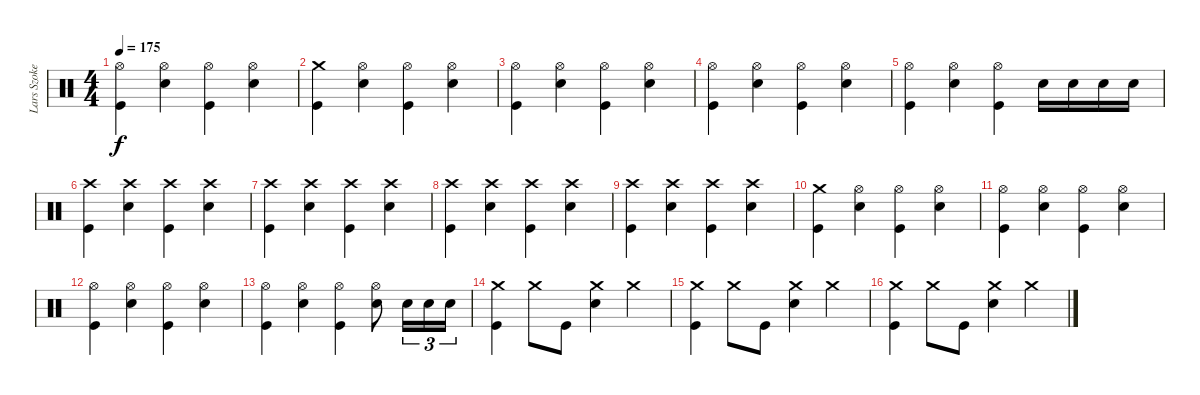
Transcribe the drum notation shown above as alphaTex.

\track ("Lars Szoke" "Lars Szoke") {instrument percussion}
\staff {score}
\articulation defaults
\ts (4 4)
\tempo 175
\clef neutral
\ks c
("Hi-Hat (open)" "Kick (hit)").4{dy f} ("Hi-Hat (open)" "Electric Snare (hit)").4 ("Hi-Hat (open)" "Kick (hit)").4 ("Hi-Hat (open)" "Electric Snare (hit)").4 |
("Crash medium (hit)" "Kick (hit)").4 ("Hi-Hat (open)" "Electric Snare (hit)").4 ("Hi-Hat (open)" "Kick (hit)").4 ("Hi-Hat (open)" "Electric Snare (hit)").4 |
("Hi-Hat (open)" "Kick (hit)").4 ("Hi-Hat (open)" "Electric Snare (hit)").4 ("Hi-Hat (open)" "Kick (hit)").4 ("Hi-Hat (open)" "Electric Snare (hit)").4 |
("Hi-Hat (open)" "Kick (hit)").4 ("Hi-Hat (open)" "Electric Snare (hit)").4 ("Hi-Hat (open)" "Kick (hit)").4 ("Hi-Hat (open)" "Electric Snare (hit)").4 |
("Hi-Hat (open)" "Kick (hit)").4 ("Hi-Hat (open)" "Electric Snare (hit)").4 ("Hi-Hat (open)" "Kick (hit)").4 "Electric Snare (hit)".16 "Electric Snare (hit)".16 "Electric Snare (hit)".16 "Electric Snare (hit)".16 |
("Crash high (hit)" "Kick (hit)").4 ("Crash high (hit)" "Electric Snare (hit)").4 ("Crash high (hit)" "Kick (hit)").4 ("Crash high (hit)" "Electric Snare (hit)").4 |
("Crash high (hit)" "Kick (hit)").4 ("Crash high (hit)" "Electric Snare (hit)").4 ("Crash high (hit)" "Kick (hit)").4 ("Crash high (hit)" "Electric Snare (hit)").4 |
("Crash high (hit)" "Kick (hit)").4 ("Crash high (hit)" "Electric Snare (hit)").4 ("Crash high (hit)" "Kick (hit)").4 ("Crash high (hit)" "Electric Snare (hit)").4 |
("Crash high (hit)" "Kick (hit)").4 ("Crash high (hit)" "Electric Snare (hit)").4 ("Crash high (hit)" "Kick (hit)").4 ("Crash high (hit)" "Electric Snare (hit)").4 |
("Crash medium (hit)" "Kick (hit)").4 ("Hi-Hat (open)" "Electric Snare (hit)").4 ("Hi-Hat (open)" "Kick (hit)").4 ("Hi-Hat (open)" "Electric Snare (hit)").4 |
("Hi-Hat (open)" "Kick (hit)").4 ("Hi-Hat (open)" "Electric Snare (hit)").4 ("Hi-Hat (open)" "Kick (hit)").4 ("Hi-Hat (open)" "Electric Snare (hit)").4 |
("Hi-Hat (open)" "Kick (hit)").4 ("Hi-Hat (open)" "Electric Snare (hit)").4 ("Hi-Hat (open)" "Kick (hit)").4 ("Hi-Hat (open)" "Electric Snare (hit)").4 |
("Hi-Hat (open)" "Kick (hit)").4 ("Hi-Hat (open)" "Electric Snare (hit)").4 ("Hi-Hat (open)" "Kick (hit)").4 ("Hi-Hat (open)" "Electric Snare (hit)").8 "Electric Snare (hit)".16{tu (3 2)} "Electric Snare (hit)".16{tu (3 2)} "Electric Snare (hit)".16{tu (3 2)} |
("Crash medium (hit)" "Kick (hit)").4 "Crash medium (hit)".8 "Kick (hit)".8 ("Crash medium (hit)" "Electric Snare (hit)").4 "Crash medium (hit)".4 |
("Crash medium (hit)" "Kick (hit)").4 "Crash medium (hit)".8 "Kick (hit)".8 ("Crash medium (hit)" "Electric Snare (hit)").4 "Crash medium (hit)".4 |
("Crash medium (hit)" "Kick (hit)").4 "Crash medium (hit)".8 "Kick (hit)".8 ("Crash medium (hit)" "Electric Snare (hit)").4 "Crash medium (hit)".4
